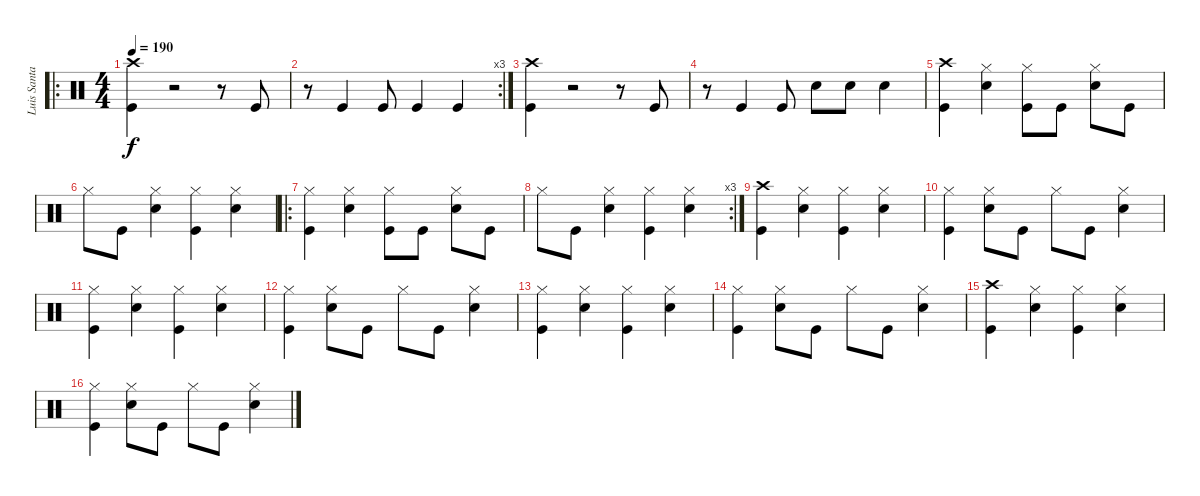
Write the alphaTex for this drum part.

\track ("Luis Santamarina - Batería" "Luis Santa") {instrument percussion}
\staff {score}
\articulation defaults
\ro
\ts (4 4)
\tempo 190
\clef neutral
\ks c
("Crash high (hit)" "Kick (hit)").4{dy f} r.2 r.8 "Kick (hit)".8 |
\rc 3
r.8 "Kick (hit)".4 "Kick (hit)".8 "Kick (hit)".4 "Kick (hit)".4 |
("Crash high (hit)" "Kick (hit)").4 r.2 r.8 "Kick (hit)".8 |
r.8 "Kick (hit)".4 "Kick (hit)".8 "Electric Snare (hit)".8 "Electric Snare (hit)".8 "Electric Snare (hit)".4 |
("Crash high (hit)" "Kick (hit)").4 ("Hi-Hat (closed)" "Electric Snare (hit)").4 ("Hi-Hat (closed)" "Kick (hit)").8 "Kick (hit)".8 ("Hi-Hat (closed)" "Electric Snare (hit)").8 "Kick (hit)".8 |
"Hi-Hat (closed)".8 "Kick (hit)".8 ("Hi-Hat (closed)" "Electric Snare (hit)").4 ("Hi-Hat (closed)" "Kick (hit)").4 ("Hi-Hat (closed)" "Electric Snare (hit)").4 |
\ro
("Hi-Hat (closed)" "Kick (hit)").4 ("Hi-Hat (closed)" "Electric Snare (hit)").4 ("Hi-Hat (closed)" "Kick (hit)").8 "Kick (hit)".8 ("Hi-Hat (closed)" "Electric Snare (hit)").8 "Kick (hit)".8 |
\rc 3 "Hi-Hat (closed)".8 "Kick (hit)".8
("Hi-Hat (closed)" "Electric Snare (hit)").4 ("Hi-Hat (closed)" "Kick (hit)").4 ("Hi-Hat (closed)" "Electric Snare (hit)").4 |
("Crash high (hit)" "Kick (hit)").4 ("Hi-Hat (closed)" "Electric Snare (hit)").4 ("Hi-Hat (closed)" "Kick (hit)").4 ("Hi-Hat (closed)" "Electric Snare (hit)").4 |
("Hi-Hat (closed)" "Kick (hit)").4 ("Hi-Hat (closed)" "Electric Snare (hit)").8 "Kick (hit)".8 "Hi-Hat (closed)".8 "Kick (hit)".8 ("Hi-Hat (closed)" "Electric Snare (hit)").4 |
("Hi-Hat (closed)" "Kick (hit)").4 ("Hi-Hat (closed)" "Electric Snare (hit)").4 ("Hi-Hat (closed)" "Kick (hit)").4 ("Hi-Hat (closed)" "Electric Snare (hit)").4 |
("Hi-Hat (closed)" "Kick (hit)").4 ("Hi-Hat (closed)" "Electric Snare (hit)").8 "Kick (hit)".8 "Hi-Hat (closed)".8 "Kick (hit)".8 ("Hi-Hat (closed)" "Electric Snare (hit)").4 |
("Hi-Hat (closed)" "Kick (hit)").4 ("Hi-Hat (closed)" "Electric Snare (hit)").4 ("Hi-Hat (closed)" "Kick (hit)").4 ("Hi-Hat (closed)" "Electric Snare (hit)").4 |
("Hi-Hat (closed)" "Kick (hit)").4 ("Hi-Hat (closed)" "Electric Snare (hit)").8 "Kick (hit)".8 "Hi-Hat (closed)".8 "Kick (hit)".8 ("Hi-Hat (closed)" "Electric Snare (hit)").4 |
("Crash high (hit)" "Kick (hit)").4 ("Hi-Hat (closed)" "Electric Snare (hit)").4 ("Hi-Hat (closed)" "Kick (hit)").4 ("Hi-Hat (closed)" "Electric Snare (hit)").4 |
("Hi-Hat (closed)" "Kick (hit)").4 ("Hi-Hat (closed)" "Electric Snare (hit)").8 "Kick (hit)".8 "Hi-Hat (closed)".8 "Kick (hit)".8 ("Hi-Hat (closed)" "Electric Snare (hit)").4
